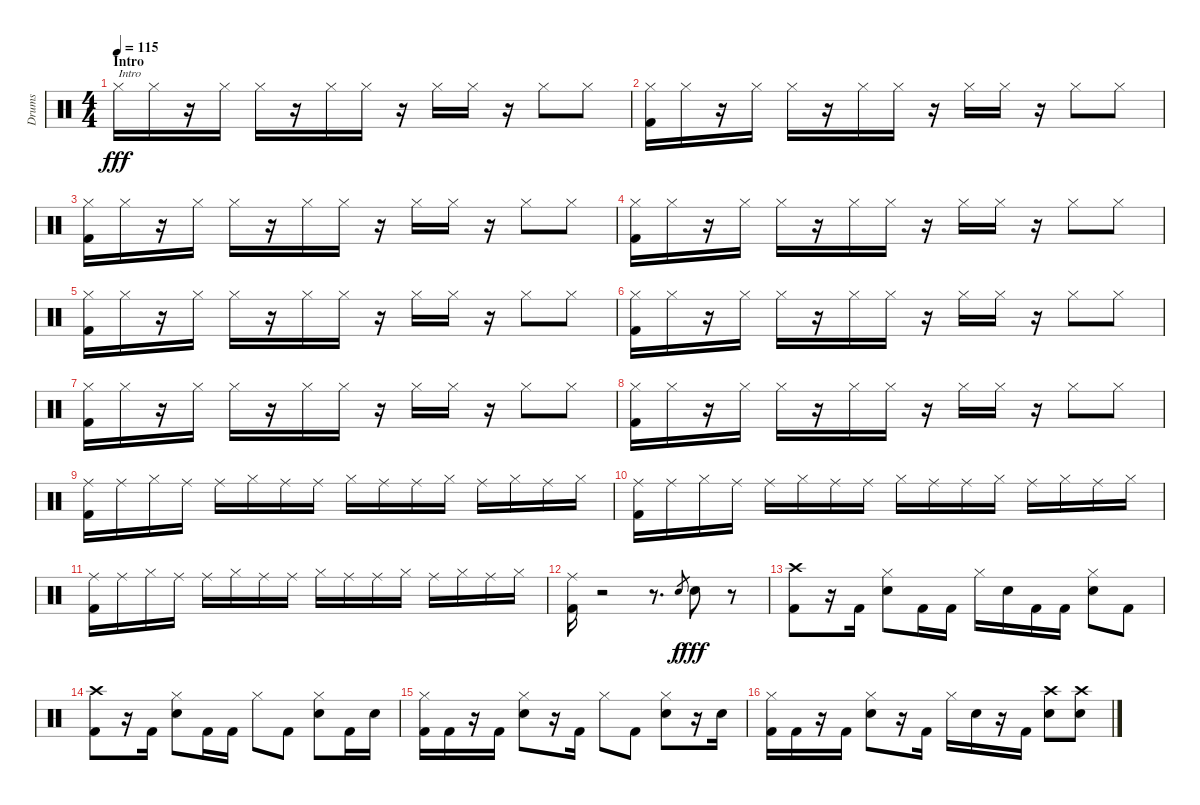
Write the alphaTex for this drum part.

\track ("Drums" "Drums") {instrument percussion}
\staff {score}
\articulation defaults
\ts (4 4)
\section ("" "Intro")
\tempo 115
\clef neutral
\ks c "Hi-Hat (closed)".16{txt "Intro" dy fff} "Hi-Hat (closed)".16
r.16 "Hi-Hat (closed)".16 "Hi-Hat (closed)".16 r.16 "Hi-Hat (closed)".16 "Hi-Hat (closed)".16 r.16 "Hi-Hat (closed)".16 "Hi-Hat (closed)".16 r.16 "Hi-Hat (closed)".8 "Hi-Hat (closed)".8 |
("Hi-Hat (closed)" "Kick (hit) 2").16 "Hi-Hat (closed)".16 r.16 "Hi-Hat (closed)".16 "Hi-Hat (closed)".16 r.16 "Hi-Hat (closed)".16 "Hi-Hat (closed)".16 r.16 "Hi-Hat (closed)".16 "Hi-Hat (closed)".16 r.16 "Hi-Hat (closed)".8 "Hi-Hat (closed)".8 |
("Hi-Hat (closed)" "Kick (hit) 2").16 "Hi-Hat (closed)".16 r.16 "Hi-Hat (closed)".16 "Hi-Hat (closed)".16 r.16 "Hi-Hat (closed)".16 "Hi-Hat (closed)".16 r.16 "Hi-Hat (closed)".16 "Hi-Hat (closed)".16 r.16 "Hi-Hat (closed)".8 "Hi-Hat (closed)".8 |
("Hi-Hat (closed)" "Kick (hit) 2").16 "Hi-Hat (closed)".16 r.16 "Hi-Hat (closed)".16 "Hi-Hat (closed)".16 r.16 "Hi-Hat (closed)".16 "Hi-Hat (closed)".16 r.16 "Hi-Hat (closed)".16 "Hi-Hat (closed)".16 r.16 "Hi-Hat (closed)".8 "Hi-Hat (closed)".8 |
("Hi-Hat (closed)" "Kick (hit) 2").16 "Hi-Hat (closed)".16 r.16 "Hi-Hat (closed)".16 "Hi-Hat (closed)".16 r.16 "Hi-Hat (closed)".16 "Hi-Hat (closed)".16 r.16 "Hi-Hat (closed)".16 "Hi-Hat (closed)".16 r.16 "Hi-Hat (closed)".8 "Hi-Hat (closed)".8 |
("Hi-Hat (closed)" "Kick (hit) 2").16 "Hi-Hat (closed)".16 r.16 "Hi-Hat (closed)".16 "Hi-Hat (closed)".16 r.16 "Hi-Hat (closed)".16 "Hi-Hat (closed)".16 r.16 "Hi-Hat (closed)".16 "Hi-Hat (closed)".16 r.16 "Hi-Hat (closed)".8 "Hi-Hat (closed)".8 |
("Hi-Hat (closed)" "Kick (hit) 2").16 "Hi-Hat (closed)".16 r.16 "Hi-Hat (closed)".16 "Hi-Hat (closed)".16 r.16 "Hi-Hat (closed)".16 "Hi-Hat (closed)".16 r.16 "Hi-Hat (closed)".16 "Hi-Hat (closed)".16 r.16 "Hi-Hat (closed)".8 "Hi-Hat (closed)".8 |
("Hi-Hat (closed)" "Kick (hit) 2").16 "Hi-Hat (closed)".16 r.16 "Hi-Hat (closed)".16 "Hi-Hat (closed)".16 r.16 "Hi-Hat (closed)".16 "Hi-Hat (closed)".16 r.16 "Hi-Hat (closed)".16 "Hi-Hat (closed)".16 r.16 "Hi-Hat (closed)".8 "Hi-Hat (closed)".8 |
("Ride (middle)" "Kick (hit) 2").16 "Ride (middle)".16 "Hi-Hat (closed)".16 "Ride (middle)".16 "Ride (middle)".16 "Hi-Hat (closed)".16 "Ride (middle)".16 "Ride (middle)".16 "Hi-Hat (closed)".16 "Ride (middle)".16 "Ride (middle)".16 "Hi-Hat (closed)".16 "Ride (middle)".16 "Hi-Hat (closed)".16 "Ride (middle)".16 "Hi-Hat (closed)".16 |
("Ride (middle)" "Kick (hit) 2").16 "Ride (middle)".16 "Hi-Hat (closed)".16 "Ride (middle)".16 "Ride (middle)".16 "Hi-Hat (closed)".16 "Ride (middle)".16 "Ride (middle)".16 "Hi-Hat (closed)".16 "Ride (middle)".16 "Ride (middle)".16 "Hi-Hat (closed)".16 "Ride (middle)".16 "Hi-Hat (closed)".16 "Ride (middle)".16 "Hi-Hat (closed)".16 |
("Ride (middle)" "Kick (hit) 2").16 "Ride (middle)".16 "Hi-Hat (closed)".16 "Ride (middle)".16 "Ride (middle)".16 "Hi-Hat (closed)".16 "Ride (middle)".16 "Ride (middle)".16 "Hi-Hat (closed)".16 "Ride (middle)".16 "Ride (middle)".16 "Hi-Hat (closed)".16 "Ride (middle)".16 "Hi-Hat (closed)".16 "Ride (middle)".16 "Hi-Hat (closed)".16 |
("Ride (middle)" "Kick (hit) 2").16 r.2 r.8{d} "Electric Snare (hit)".8{gr dy f} "Electric Snare (hit)".8{dy fff} r.8 |
("Crash high (hit)" "Kick (hit) 2").8 r.16 "Kick (hit) 2".16 ("Hi-Hat (closed)" "Electric Snare (hit)").8 "Kick (hit) 2".16 "Kick (hit) 2".16 "Hi-Hat (closed)".16 "Electric Snare (hit)".16 "Kick (hit) 2".16 "Kick (hit) 2".16 ("Hi-Hat (closed)" "Electric Snare (hit)").8 "Kick (hit) 2".8 |
("Crash high (hit)" "Kick (hit) 2").8 r.16 "Kick (hit) 2".16 ("Hi-Hat (closed)" "Electric Snare (hit)").8 "Kick (hit) 2".16 "Kick (hit) 2".16 "Hi-Hat (closed)".8 "Kick (hit) 2".8 ("Hi-Hat (closed)" "Electric Snare (hit)").8 "Kick (hit) 2".16 "Electric Snare (hit)".16 |
("Hi-Hat (closed)" "Kick (hit) 2").16 "Kick (hit) 2".16 r.16 "Kick (hit) 2".16 ("Hi-Hat (closed)" "Electric Snare (hit)").8 r.16 "Kick (hit) 2".16 "Hi-Hat (closed)".8 "Kick (hit) 2".8 ("Hi-Hat (closed)" "Electric Snare (hit)").8 r.16 "Electric Snare (hit)".16 |
("Hi-Hat (closed)" "Kick (hit) 2").16 "Kick (hit) 2".16 r.16 "Kick (hit) 2".16 ("Hi-Hat (closed)" "Electric Snare (hit)").8 r.16 "Kick (hit) 2".16 "Hi-Hat (closed)".16 "Electric Snare (hit)".16 r.16 "Kick (hit) 2".16 ("Crash high (hit)" "Electric Snare (hit)").8 ("Crash high (hit)" "Electric Snare (hit)").8
